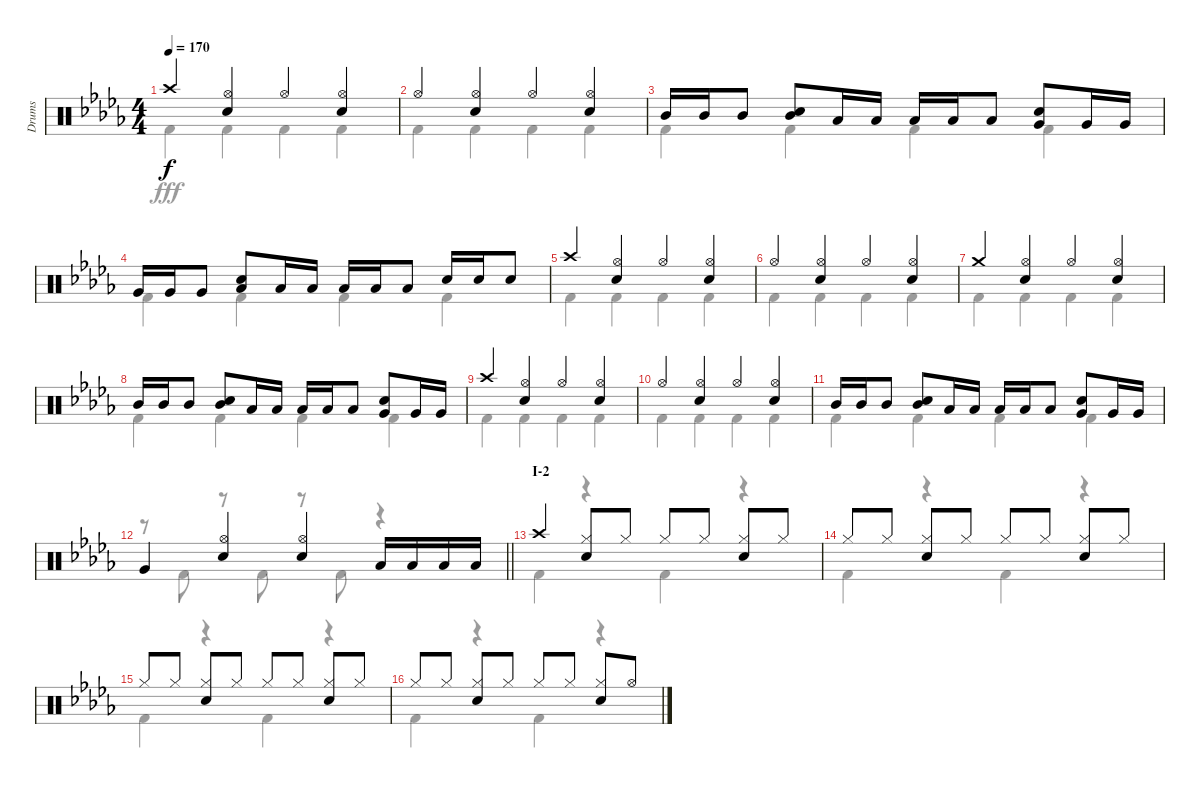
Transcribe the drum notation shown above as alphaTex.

\track ("Drums" "Drums") {instrument percussion}
\staff {score}
\articulation defaults
\voice
\ts (4 4)
\tempo 170
\clef neutral
\ks db "Crash high (hit)".4{dy f}
("Hi-Hat (open)" "Snare (hit) 2").4 "Hi-Hat (open)".4 ("Hi-Hat (open)" "Snare (hit) 2").4 |
"Hi-Hat (open)".4 ("Hi-Hat (open)" "Snare (hit) 2").4 "Hi-Hat (open)".4 ("Hi-Hat (open)" "Snare (hit) 2").4 |
"Mid Tom (hit)".16 "Mid Tom (hit)".16 "Mid Tom (hit)".8 ("Mid Tom (hit)" "Snare (hit) 2").8 "Low Tom (hit)".16 "Low Tom (hit)".16 "Low Tom (hit)".16 "Low Tom (hit)".16 "Low Tom (hit)".8 ("Snare (hit) 2" "Very Low Tom (hit)").8 "Very Low Tom (hit)".16 "Very Low Tom (hit)".16 |
"Very Low Tom (hit)".16 "Very Low Tom (hit)".16 "Very Low Tom (hit)".8 ("Snare (hit) 2" "Low Tom (hit)").8 "Low Tom (hit)".16 "Low Tom (hit)".16 "Low Tom (hit)".16 "Low Tom (hit)".16 "Low Tom (hit)".8 "Snare (hit) 2".16 "Snare (hit) 2".16 "Snare (hit) 2".8 |
"Crash high (hit)".4 ("Hi-Hat (open)" "Snare (hit) 2").4 "Hi-Hat (open)".4 ("Hi-Hat (open)" "Snare (hit) 2").4 |
"Hi-Hat (open)".4 ("Hi-Hat (open)" "Snare (hit) 2").4 "Hi-Hat (open)".4 ("Hi-Hat (open)" "Snare (hit) 2").4 |
"Crash medium (hit)".4 ("Hi-Hat (open)" "Snare (hit) 2").4 "Hi-Hat (open)".4 ("Hi-Hat (open)" "Snare (hit) 2").4 |
"Mid Tom (hit)".16 "Mid Tom (hit)".16 "Mid Tom (hit)".8 ("Mid Tom (hit)" "Snare (hit) 2").8 "Low Tom (hit)".16 "Low Tom (hit)".16 "Low Tom (hit)".16 "Low Tom (hit)".16 "Low Tom (hit)".8 ("Snare (hit) 2" "Very Low Tom (hit)").8 "Very Low Tom (hit)".16 "Very Low Tom (hit)".16 |
"Crash high (hit)".4 ("Hi-Hat (open)" "Snare (hit) 2").4 "Hi-Hat (open)".4 ("Hi-Hat (open)" "Snare (hit) 2").4 |
"Hi-Hat (open)".4 ("Hi-Hat (open)" "Snare (hit) 2").4 "Hi-Hat (open)".4 ("Hi-Hat (open)" "Snare (hit) 2").4 |
"Mid Tom (hit)".16 "Mid Tom (hit)".16 "Mid Tom (hit)".8 ("Mid Tom (hit)" "Snare (hit) 2").8 "Low Tom (hit)".16 "Low Tom (hit)".16 "Low Tom (hit)".16 "Low Tom (hit)".16 "Low Tom (hit)".8 ("Snare (hit) 2" "Very Low Tom (hit)").8 "Very Low Tom (hit)".16 "Very Low Tom (hit)".16 |
\barLineRight lightlight "Very Low Tom (hit)".4
("Hi-Hat (open)" "Snare (hit) 2").4 ("Hi-Hat (open)" "Snare (hit) 2").4 "Low Tom (hit)".16 "Low Tom (hit)".16 "Low Tom (hit)".16 "Low Tom (hit)".16 |
\section ("" "I-2")
"Crash high (hit)".4 ("Hi-Hat (closed)" "Snare (hit) 2").8 "Hi-Hat (closed)".8 "Hi-Hat (closed)".8 "Hi-Hat (closed)".8 ("Hi-Hat (closed)" "Snare (hit) 2").8 "Hi-Hat (closed)".8 |
"Hi-Hat (closed)".8 "Hi-Hat (closed)".8 ("Hi-Hat (closed)" "Snare (hit) 2").8 "Hi-Hat (closed)".8 "Hi-Hat (closed)".8 "Hi-Hat (closed)".8 ("Hi-Hat (closed)" "Snare (hit) 2").8 "Hi-Hat (closed)".8 |
"Hi-Hat (closed)".8 "Hi-Hat (closed)".8 ("Hi-Hat (closed)" "Snare (hit) 2").8 "Hi-Hat (closed)".8 "Hi-Hat (closed)".8 "Hi-Hat (closed)".8 ("Hi-Hat (closed)" "Snare (hit) 2").8 "Hi-Hat (closed)".8 |
"Hi-Hat (closed)".8 "Hi-Hat (closed)".8 ("Hi-Hat (closed)" "Snare (hit) 2").8 "Hi-Hat (closed)".8 "Hi-Hat (closed)".8 "Hi-Hat (closed)".8 ("Hi-Hat (closed)" "Snare (hit) 2").8 "Hi-Hat (open)".8
\voice
\clef neutral
\ottava regular
\simile none
\ks db "Kick (hit) 2".4{dy fff} "Kick (hit) 2".4 "Kick (hit) 2".4 "Kick (hit) 2".4
|
"Kick (hit) 2".4 "Kick (hit) 2".4 "Kick (hit) 2".4 "Kick (hit) 2".4 |
"Kick (hit) 2".4 "Kick (hit) 2".4 "Kick (hit) 2".4 "Kick (hit) 2".4 |
"Kick (hit) 2".4 "Kick (hit) 2".4 "Kick (hit) 2".4 "Kick (hit) 2".4 |
"Kick (hit) 2".4 "Kick (hit) 2".4 "Kick (hit) 2".4 "Kick (hit) 2".4 |
"Kick (hit) 2".4 "Kick (hit) 2".4 "Kick (hit) 2".4 "Kick (hit) 2".4 |
"Kick (hit) 2".4 "Kick (hit) 2".4 "Kick (hit) 2".4 "Kick (hit) 2".4 |
"Kick (hit) 2".4 "Kick (hit) 2".4 "Kick (hit) 2".4 "Kick (hit) 2".4 |
"Kick (hit) 2".4 "Kick (hit) 2".4 "Kick (hit) 2".4 "Kick (hit) 2".4 |
"Kick (hit) 2".4 "Kick (hit) 2".4 "Kick (hit) 2".4 "Kick (hit) 2".4 |
"Kick (hit) 2".4 "Kick (hit) 2".4 "Kick (hit) 2".4 "Kick (hit) 2".4 |
\barLineRight lightlight
r.8 "Kick (hit) 2".8 r.8 "Kick (hit) 2".8 r.8 "Kick (hit) 2".8 r.4 |
"Kick (hit) 2".4 r.4 "Kick (hit) 2".4 r.4 |
"Kick (hit) 2".4 r.4 "Kick (hit) 2".4 r.4 |
"Kick (hit) 2".4 r.4 "Kick (hit) 2".4 r.4 |
"Kick (hit) 2".4 r.4 "Kick (hit) 2".4 r.4
